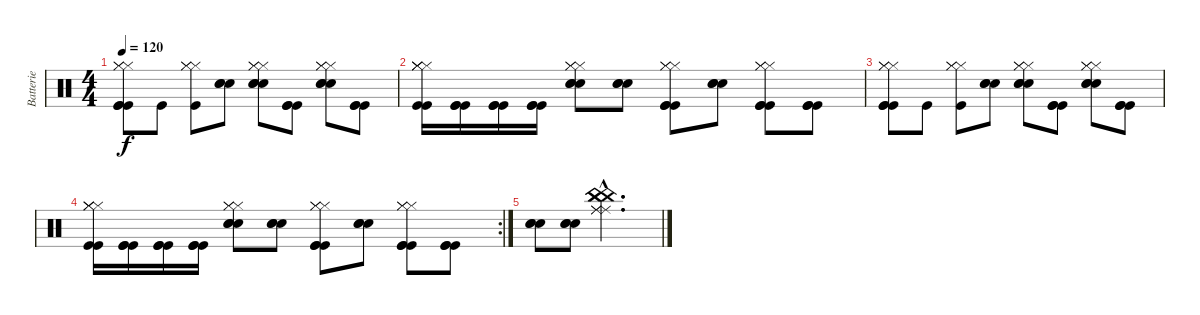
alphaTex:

\track ("Batterie" "Batterie") {instrument percussion}
\staff {score}
\articulation defaults
\ts (4 4)
\tempo 120
\clef neutral
\ks c
("Hi-Hat (closed)" "Hi-Hat (closed)" "Hi-Hat (closed)" "Kick (hit)" "Kick (hit)" "Kick (hit)").8{dy f} "Kick (hit)".8 ("Hi-Hat (closed)" "Hi-Hat (closed)" "Hi-Hat (closed)" "Kick (hit)").8 ("Snare (hit) 2" "Snare (hit) 2" "Snare (hit) 2").8 ("Hi-Hat (closed)" "Hi-Hat (closed)" "Hi-Hat (closed)" "Snare (hit) 2" "Snare (hit) 2" "Snare (hit) 2").8 ("Kick (hit)" "Kick (hit)" "Kick (hit)").8 ("Snare (hit) 2" "Snare (hit) 2" "Snare (hit) 2" "Hi-Hat (closed)" "Hi-Hat (closed)" "Hi-Hat (closed)").8 ("Kick (hit)" "Kick (hit)" "Kick (hit)").8 |
("Hi-Hat (closed)" "Hi-Hat (closed)" "Hi-Hat (closed)" "Hi-Hat (closed)" "Kick (hit)" "Kick (hit)").16 ("Kick (hit)" "Kick (hit)" "Kick (hit)").16 ("Kick (hit)" "Kick (hit)" "Kick (hit)").16 ("Kick (hit)" "Kick (hit)" "Kick (hit)").16 ("Hi-Hat (closed)" "Hi-Hat (closed)" "Hi-Hat (closed)" "Snare (hit) 2" "Snare (hit) 2" "Snare (hit) 2").8 ("Snare (hit) 2" "Snare (hit) 2" "Snare (hit) 2").8 ("Hi-Hat (closed)" "Hi-Hat (closed)" "Hi-Hat (closed)" "Kick (hit)" "Kick (hit)" "Kick (hit)").8 ("Snare (hit) 2" "Snare (hit) 2" "Snare (hit) 2").8 ("Hi-Hat (closed)" "Hi-Hat (closed)" "Hi-Hat (closed)" "Kick (hit)" "Kick (hit)" "Kick (hit)").8 ("Kick (hit)" "Kick (hit)" "Kick (hit)").8 |
("Hi-Hat (closed)" "Hi-Hat (closed)" "Hi-Hat (closed)" "Kick (hit)" "Kick (hit)" "Kick (hit)").8 "Kick (hit)".8 ("Hi-Hat (closed)" "Hi-Hat (closed)" "Hi-Hat (closed)" "Kick (hit)").8 ("Snare (hit) 2" "Snare (hit) 2" "Snare (hit) 2").8 ("Hi-Hat (closed)" "Hi-Hat (closed)" "Hi-Hat (closed)" "Snare (hit) 2" "Snare (hit) 2" "Snare (hit) 2").8 ("Kick (hit)" "Kick (hit)" "Kick (hit)").8 ("Snare (hit) 2" "Snare (hit) 2" "Snare (hit) 2" "Hi-Hat (closed)" "Hi-Hat (closed)" "Hi-Hat (closed)").8 ("Kick (hit)" "Kick (hit)" "Kick (hit)").8 |
\rc 2
("Hi-Hat (closed)" "Hi-Hat (closed)" "Hi-Hat (closed)" "Hi-Hat (closed)" "Kick (hit)" "Kick (hit)").16 ("Kick (hit)" "Kick (hit)" "Kick (hit)").16 ("Kick (hit)" "Kick (hit)" "Kick (hit)").16 ("Kick (hit)" "Kick (hit)" "Kick (hit)").16 ("Hi-Hat (closed)" "Hi-Hat (closed)" "Hi-Hat (closed)" "Snare (hit) 2" "Snare (hit) 2" "Snare (hit) 2").8 ("Snare (hit) 2" "Snare (hit) 2" "Snare (hit) 2").8 ("Hi-Hat (closed)" "Hi-Hat (closed)" "Hi-Hat (closed)" "Kick (hit)" "Kick (hit)" "Kick (hit)").8 ("Snare (hit) 2" "Snare (hit) 2" "Snare (hit) 2").8 ("Hi-Hat (closed)" "Hi-Hat (closed)" "Hi-Hat (closed)" "Kick (hit)" "Kick (hit)" "Kick (hit)").8 ("Kick (hit)" "Kick (hit)" "Kick (hit)").8 |
("Snare (hit) 2" "Snare (hit) 2" "Snare (hit) 2").8 ("Snare (hit) 2" "Snare (hit) 2" "Snare (hit) 2").8 ("China (hit)"{hac} "China (hit)"{hac} "China (hit)"{hac} "Ride (middle)"{hac} "Ride (middle)"{hac} "Ride (middle)"{hac}).2{d}
